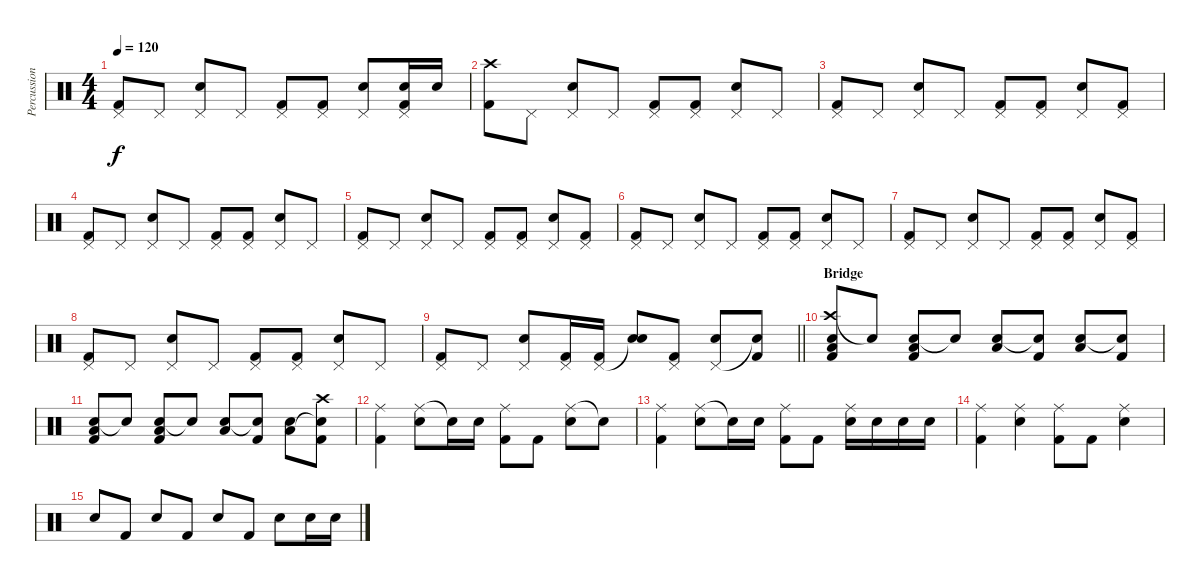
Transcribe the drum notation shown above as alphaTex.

\track ("Percussion" "Percussion") {instrument percussion}
\staff {score}
\articulation defaults
\ts (4 4)
\tempo 120
\clef neutral
\ks c
("Pedal Hi-Hat (hit)" "Kick (hit) 2").8{dy f} "Pedal Hi-Hat (hit)".8 ("Pedal Hi-Hat (hit)" "Snare (hit) 2").8 "Pedal Hi-Hat (hit)".8 ("Pedal Hi-Hat (hit)" "Kick (hit) 2").8 ("Pedal Hi-Hat (hit)" "Kick (hit) 2").8 ("Pedal Hi-Hat (hit)" "Snare (hit) 2").8 ("Pedal Hi-Hat (hit)" "Snare (hit) 2" "Kick (hit) 2").16 "Snare (hit) 2".16 |
("Crash high (hit)" "Kick (hit) 2").8 "Pedal Hi-Hat (hit)".8 ("Pedal Hi-Hat (hit)" "Snare (hit) 2").8 "Pedal Hi-Hat (hit)".8 ("Pedal Hi-Hat (hit)" "Kick (hit) 2").8 ("Pedal Hi-Hat (hit)" "Kick (hit) 2").8 ("Pedal Hi-Hat (hit)" "Snare (hit) 2").8 "Pedal Hi-Hat (hit)".8 |
("Pedal Hi-Hat (hit)" "Kick (hit) 2").8 "Pedal Hi-Hat (hit)".8 ("Pedal Hi-Hat (hit)" "Snare (hit) 2").8 "Pedal Hi-Hat (hit)".8 ("Pedal Hi-Hat (hit)" "Kick (hit) 2").8 ("Pedal Hi-Hat (hit)" "Kick (hit) 2").8 ("Pedal Hi-Hat (hit)" "Snare (hit) 2").8 ("Pedal Hi-Hat (hit)" "Kick (hit) 2").8 |
("Pedal Hi-Hat (hit)" "Kick (hit) 2").8 "Pedal Hi-Hat (hit)".8 ("Pedal Hi-Hat (hit)" "Snare (hit) 2").8 "Pedal Hi-Hat (hit)".8 ("Pedal Hi-Hat (hit)" "Kick (hit) 2").8 ("Pedal Hi-Hat (hit)" "Kick (hit) 2").8 ("Pedal Hi-Hat (hit)" "Snare (hit) 2").8 "Pedal Hi-Hat (hit)".8 |
("Pedal Hi-Hat (hit)" "Kick (hit) 2").8 "Pedal Hi-Hat (hit)".8 ("Pedal Hi-Hat (hit)" "Snare (hit) 2").8 "Pedal Hi-Hat (hit)".8 ("Pedal Hi-Hat (hit)" "Kick (hit) 2").8 ("Pedal Hi-Hat (hit)" "Kick (hit) 2").8 ("Pedal Hi-Hat (hit)" "Snare (hit) 2").8 ("Pedal Hi-Hat (hit)" "Kick (hit) 2").8 |
("Pedal Hi-Hat (hit)" "Kick (hit) 2").8 "Pedal Hi-Hat (hit)".8 ("Pedal Hi-Hat (hit)" "Snare (hit) 2").8 "Pedal Hi-Hat (hit)".8 ("Pedal Hi-Hat (hit)" "Kick (hit) 2").8 ("Pedal Hi-Hat (hit)" "Kick (hit) 2").8 ("Pedal Hi-Hat (hit)" "Snare (hit) 2").8 "Pedal Hi-Hat (hit)".8 |
("Pedal Hi-Hat (hit)" "Kick (hit) 2").8 "Pedal Hi-Hat (hit)".8 ("Pedal Hi-Hat (hit)" "Snare (hit) 2").8 "Pedal Hi-Hat (hit)".8 ("Pedal Hi-Hat (hit)" "Kick (hit) 2").8 ("Pedal Hi-Hat (hit)" "Kick (hit) 2").8 ("Pedal Hi-Hat (hit)" "Snare (hit) 2").8 ("Pedal Hi-Hat (hit)" "Kick (hit) 2").8 |
("Pedal Hi-Hat (hit)" "Kick (hit) 2").8 "Pedal Hi-Hat (hit)".8 ("Pedal Hi-Hat (hit)" "Snare (hit) 2").8 "Pedal Hi-Hat (hit)".8 ("Pedal Hi-Hat (hit)" "Kick (hit) 2").8 ("Pedal Hi-Hat (hit)" "Kick (hit) 2").8 ("Pedal Hi-Hat (hit)" "Snare (hit) 2").8 "Pedal Hi-Hat (hit)".8 |
\barLineRight lightlight
("Pedal Hi-Hat (hit)" "Kick (hit) 2").8 "Pedal Hi-Hat (hit)".8 ("Pedal Hi-Hat (hit)" "Snare (hit) 2").8 ("Pedal Hi-Hat (hit)" "Kick (hit) 2").16 ("Pedal Hi-Hat (hit)" "Kick (hit) 2").16 ("Snare (hit)"{t} "Snare (hit) 2").8 ("Pedal Hi-Hat (hit)" "Kick (hit) 2").8 ("Pedal Hi-Hat (hit)" "Snare (hit) 2").8 ("Snare (hit)"{t} "Kick (hit) 2").8 |
\section ("" "Bridge")
("Crash high (hit)" "Snare (hit) 2" "Low Tom (hit)" "Kick (hit) 2").8 "Snare (hit)"{t}.8 ("Snare (hit) 2" "Low Tom (hit)" "Kick (hit) 2").8 "Snare (hit)"{t}.8 ("Snare (hit) 2" "Low Tom (hit)").8 ("Snare (hit)"{t} "Kick (hit) 2").8 ("Snare (hit) 2" "Low Tom (hit)").8 ("Snare (hit)"{t} "Kick (hit) 2").8 |
("Snare (hit) 2" "Low Tom (hit)" "Kick (hit) 2").8 "Snare (hit)"{t}.8 ("Snare (hit) 2" "Low Tom (hit)" "Kick (hit) 2").8 "Snare (hit)"{t}.8 ("Snare (hit) 2" "Low Tom (hit)").8 ("Snare (hit)"{t} "Kick (hit) 2").8 ("Snare (hit) 2" "Low Tom (hit)").8 ("Crash high (hit)" "Snare (hit)"{t} "Kick (hit) 2").8 |
("Ride (middle)" "Kick (hit) 2").4 ("Ride (middle)" "Snare (hit) 2").8 "Snare (hit)"{t}.16 "Snare (hit) 2".16 ("Ride (middle)" "Kick (hit) 2").8 "Kick (hit) 2".8 ("Ride (middle)" "Snare (hit) 2").8 "Snare (hit)"{t}.8 |
("Ride (middle)" "Kick (hit) 2").4 ("Ride (middle)" "Snare (hit) 2").8 "Snare (hit)"{t}.16 "Snare (hit) 2".16 ("Ride (middle)" "Kick (hit) 2").8 "Kick (hit) 2".8 ("Ride (middle)" "Snare (hit) 2").16 "Snare (hit) 2".16 "Snare (hit) 2".16 "Snare (hit) 2".16 |
("Ride (middle)" "Kick (hit) 2").4 ("Ride (middle)" "Snare (hit) 2").4 ("Ride (middle)" "Kick (hit) 2").8 "Kick (hit) 2".8 ("Ride (middle)" "Snare (hit) 2").4 |
"Snare (hit) 2".8 "Kick (hit) 2".8 "Snare (hit) 2".8 "Kick (hit) 2".8 "Snare (hit) 2".8 "Kick (hit) 2".8 "Snare (hit) 2".8 "Snare (hit) 2".16 "Snare (hit) 2".16
